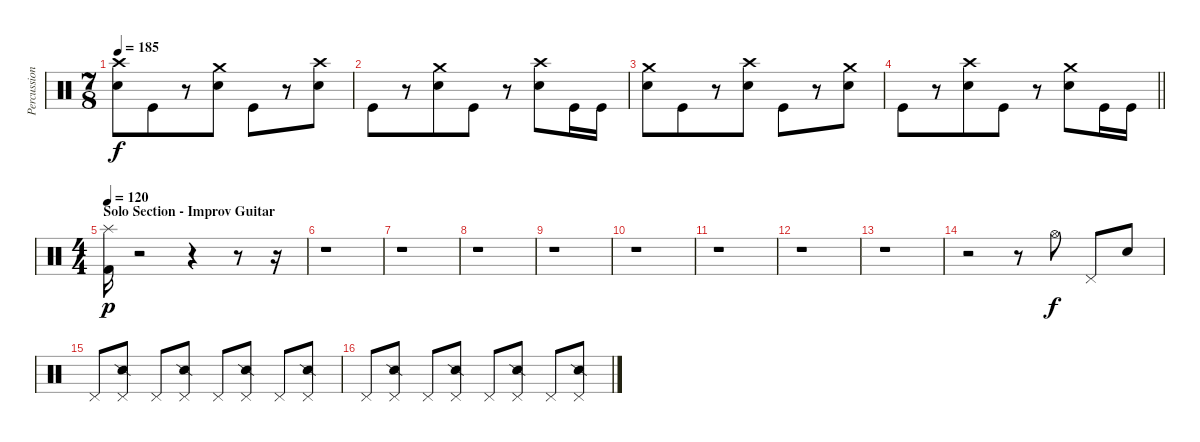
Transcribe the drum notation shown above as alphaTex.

\track ("Percussion" "Percussion") {instrument percussion}
\staff {score}
\articulation defaults
\ts (7 8)
\tempo 185
\clef neutral
\ks c
("Electric Snare (hit)" "Crash high (hit)").8{dy f} "Kick (hit)".8 r.8 ("Electric Snare (hit)" "Crash medium (hit)").8 "Kick (hit)".8 r.8 ("Electric Snare (hit)" "Crash high (hit)").8 |
"Kick (hit)".8 r.8 ("Electric Snare (hit)" "Crash medium (hit)").8 "Kick (hit)".8 r.8 ("Electric Snare (hit)" "Crash high (hit)").8 "Kick (hit)".16 "Kick (hit)".16 |
("Electric Snare (hit)" "Crash medium (hit)").8 "Kick (hit)".8 r.8 ("Electric Snare (hit)" "Crash high (hit)").8 "Kick (hit)".8 r.8 ("Electric Snare (hit)" "Crash medium (hit)").8 |
\barLineRight lightlight "Kick (hit)".8
r.8 ("Electric Snare (hit)" "Crash high (hit)").8 "Kick (hit)".8 r.8 ("Electric Snare (hit)" "Crash medium (hit)").8 "Kick (hit)".16 "Kick (hit)".16 |
\ts (4 4)
\section ("" "Solo Section - Improv Guitar")
\tempo 120
("Splash (hit)" "Kick (hit) 2").16{dy p} r.2 r.4 r.8 r.16 |
r.1 |
r.1 |
r.1 |
r.1 |
r.1 |
r.1 |
r.1 |
r.1 |
r.2 r.8 "Hi-Hat (open)".8{dy f} "Pedal Hi-Hat (hit)".8 "Electric Snare (hit)".8 |
"Pedal Hi-Hat (hit)".8 ("Pedal Hi-Hat (hit)" "Snare (side stick) 2").8 "Pedal Hi-Hat (hit)".8 ("Pedal Hi-Hat (hit)" "Snare (side stick) 2").8 "Pedal Hi-Hat (hit)".8 ("Snare (side stick) 2" "Pedal Hi-Hat (hit)").8 "Pedal Hi-Hat (hit)".8 ("Snare (side stick) 2" "Pedal Hi-Hat (hit)").8 |
"Pedal Hi-Hat (hit)".8 ("Pedal Hi-Hat (hit)" "Snare (side stick) 2").8 "Pedal Hi-Hat (hit)".8 ("Pedal Hi-Hat (hit)" "Snare (side stick) 2").8 "Pedal Hi-Hat (hit)".8 ("Snare (side stick) 2" "Pedal Hi-Hat (hit)").8 "Pedal Hi-Hat (hit)".8 ("Snare (side stick) 2" "Pedal Hi-Hat (hit)").8
